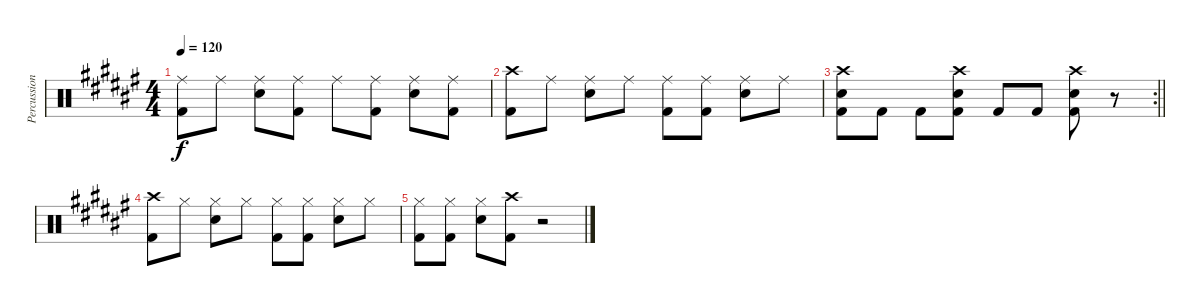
\track ("Percussion" "Percussion") {instrument percussion}
\staff {score}
\articulation defaults
\ts (4 4)
\tempo 120
\clef neutral
\ks f#
("Ride (middle)" "Kick (hit) 2").8{dy f} "Ride (middle)".8 ("Ride (middle)" "Electric Snare (hit)").8 ("Ride (middle)" "Kick (hit) 2").8 "Ride (middle)".8 ("Ride (middle)" "Kick (hit) 2").8 ("Ride (middle)" "Electric Snare (hit)").8 ("Ride (middle)" "Kick (hit) 2").8 |
("Crash high (hit)" "Kick (hit) 2").8 "Ride (middle)".8 ("Ride (middle)" "Electric Snare (hit)").8 "Ride (middle)".8 ("Ride (middle)" "Kick (hit) 2").8 ("Ride (middle)" "Kick (hit) 2").8 ("Ride (middle)" "Electric Snare (hit)").8 "Ride (middle)".8 |
\rc 2
\barLineRight lightlight
("Crash high (hit)" "Electric Snare (hit)" "Kick (hit) 2").8 "Kick (hit) 2".8 "Kick (hit) 2".8 ("Crash high (hit)" "Electric Snare (hit)" "Kick (hit) 2").8 "Kick (hit) 2".8 "Kick (hit) 2".8 ("Crash high (hit)" "Electric Snare (hit)" "Kick (hit) 2").8 r.8 |
("Crash high (hit)" "Kick (hit) 2").8 "Hi-Hat (closed)".8 ("Hi-Hat (closed)" "Electric Snare (hit)").8 "Hi-Hat (closed)".8 ("Hi-Hat (closed)" "Kick (hit) 2").8 ("Hi-Hat (closed)" "Kick (hit) 2").8 ("Hi-Hat (closed)" "Electric Snare (hit)").8 "Hi-Hat (closed)".8 |
("Hi-Hat (closed)" "Kick (hit) 2").8 ("Hi-Hat (closed)" "Kick (hit) 2").8 ("Hi-Hat (closed)" "Electric Snare (hit)").8 ("Crash high (hit)" "Kick (hit) 2").8 r.2
